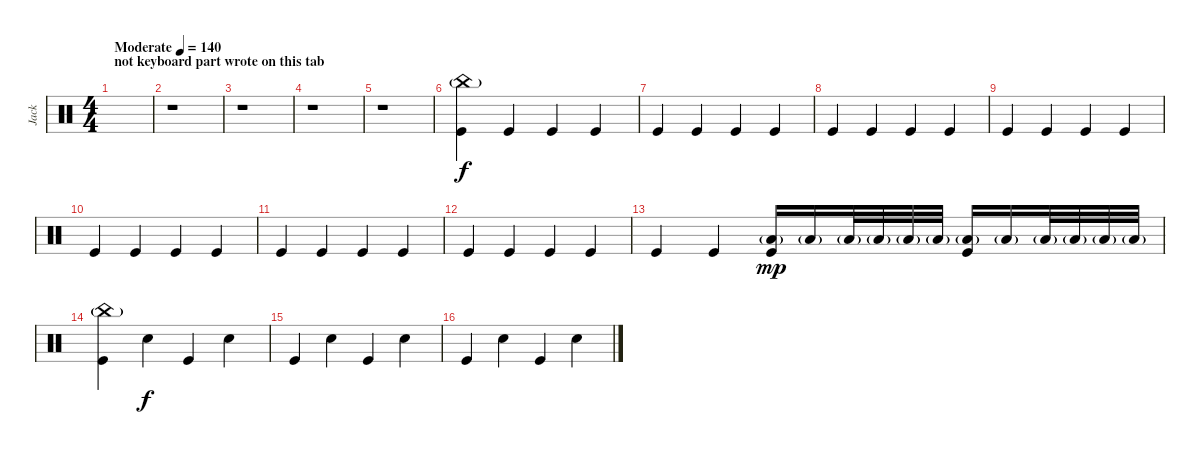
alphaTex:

\track ("Jack" "Jack") {instrument percussion}
\staff {score}
\articulation defaults
\ts (4 4)
\section ("" "not keyboard part wrote on this tab")
\tempo (140 "Moderate")
\clef neutral
\ks c
|
r.1 |
r.1 |
r.1 |
r.1 |
("China (hit)"{g} "Kick (hit)").4 "Kick (hit)".4{dy f} "Kick (hit)".4 "Kick (hit)".4 |
"Kick (hit)".4 "Kick (hit)".4 "Kick (hit)".4 "Kick (hit)".4 |
"Kick (hit)".4 "Kick (hit)".4 "Kick (hit)".4 "Kick (hit)".4 |
"Kick (hit)".4 "Kick (hit)".4 "Kick (hit)".4 "Kick (hit)".4 |
"Kick (hit)".4 "Kick (hit)".4 "Kick (hit)".4 "Kick (hit)".4 |
"Kick (hit)".4 "Kick (hit)".4 "Kick (hit)".4 "Kick (hit)".4 |
"Kick (hit)".4 "Kick (hit)".4 "Kick (hit)".4 "Kick (hit)".4 |
"Kick (hit)".4 "Kick (hit)".4 ("Low Floor Tom (hit)"{g} "Kick (hit)").16{dy mp} "Low Floor Tom (hit)"{g}.16 "Low Floor Tom (hit)"{g}.32 "Low Floor Tom (hit)"{g}.32 "Low Floor Tom (hit)"{g}.32 "Low Floor Tom (hit)"{g}.32 ("Low Floor Tom (hit)"{g} "Kick (hit)").16 "Low Floor Tom (hit)"{g}.16 "Low Floor Tom (hit)"{g}.32 "Low Floor Tom (hit)"{g}.32 "Low Floor Tom (hit)"{g}.32 "Low Floor Tom (hit)"{g}.32 |
("China (hit)"{g} "Kick (hit)").4 "Snare (hit) 2".4{dy f} "Kick (hit)".4 "Snare (hit) 2".4 |
"Kick (hit)".4 "Snare (hit) 2".4 "Kick (hit)".4 "Snare (hit) 2".4 |
"Kick (hit)".4 "Snare (hit) 2".4 "Kick (hit)".4 "Snare (hit) 2".4
